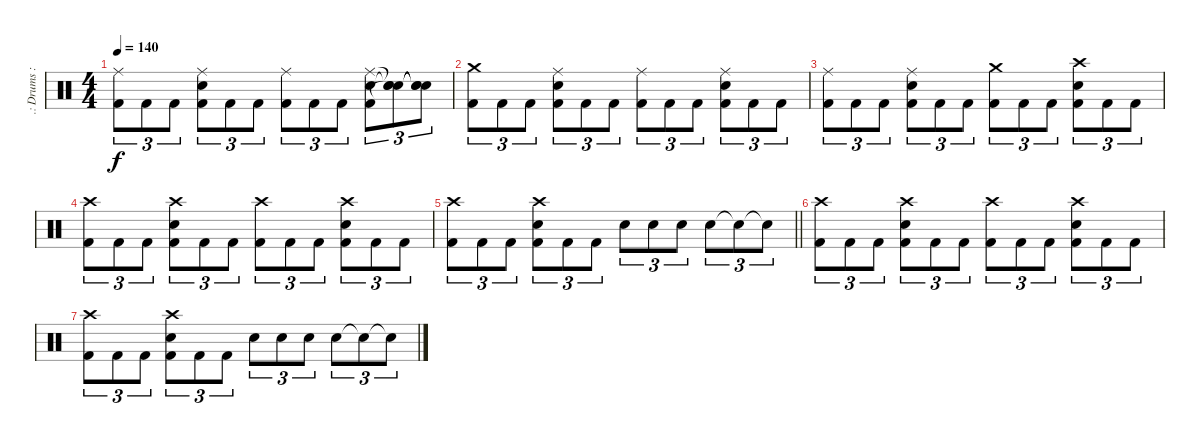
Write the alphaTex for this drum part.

\track (".: Drums :." ".: Drums :") {instrument percussion}
\staff {score}
\articulation defaults
\ts (4 4)
\tempo 140
\clef neutral
\ks c
("Ride (middle)" "Kick (hit) 2").8{tu (3 2) dy f} "Kick (hit) 2".8{tu (3 2)} "Kick (hit) 2".8{tu (3 2)} ("Ride (middle)" "Snare (hit) 2" "Kick (hit) 2").8{tu (3 2)} "Kick (hit) 2".8{tu (3 2)} "Kick (hit) 2".8{tu (3 2)} ("Ride (middle)" "Kick (hit) 2").8{tu (3 2)} "Kick (hit) 2".8{tu (3 2)} "Kick (hit) 2".8{tu (3 2)} ("Ride (middle)" "Snare (hit) 2" "Kick (hit) 2").8{tu (3 2)} ("Snare (hit)"{t} "Snare (hit)"{t} "Snare (hit)"{t}).8{tu (3 2)} ("Snare (hit)"{t} "Snare (hit)"{t} "Snare (hit)"{t}).8{tu (3 2)} |
("Crash medium (hit)" "Kick (hit) 2").8{tu (3 2)} "Kick (hit) 2".8{tu (3 2)} "Kick (hit) 2".8{tu (3 2)} ("Ride (middle)" "Snare (hit) 2" "Kick (hit) 2").8{tu (3 2)} "Kick (hit) 2".8{tu (3 2)} "Kick (hit) 2".8{tu (3 2)} ("Ride (middle)" "Kick (hit) 2").8{tu (3 2)} "Kick (hit) 2".8{tu (3 2)} "Kick (hit) 2".8{tu (3 2)} ("Ride (middle)" "Snare (hit) 2" "Kick (hit) 2").8{tu (3 2)} "Kick (hit) 2".8{tu (3 2)} "Kick (hit) 2".8{tu (3 2)} |
("Ride (middle)" "Kick (hit) 2").8{tu (3 2)} "Kick (hit) 2".8{tu (3 2)} "Kick (hit) 2".8{tu (3 2)} ("Ride (middle)" "Snare (hit) 2" "Kick (hit) 2").8{tu (3 2)} "Kick (hit) 2".8{tu (3 2)} "Kick (hit) 2".8{tu (3 2)} ("Crash medium (hit)" "Kick (hit) 2").8{tu (3 2)} "Kick (hit) 2".8{tu (3 2)} "Kick (hit) 2".8{tu (3 2)} ("Crash high (hit)" "Snare (hit) 2" "Kick (hit) 2").8{tu (3 2)} "Kick (hit) 2".8{tu (3 2)} "Kick (hit) 2".8{tu (3 2)} |
("Crash high (hit)" "Kick (hit) 2").8{tu (3 2)} "Kick (hit) 2".8{tu (3 2)} "Kick (hit) 2".8{tu (3 2)} ("Crash high (hit)" "Snare (hit) 2" "Kick (hit) 2").8{tu (3 2)} "Kick (hit) 2".8{tu (3 2)} "Kick (hit) 2".8{tu (3 2)} ("Crash high (hit)" "Kick (hit) 2").8{tu (3 2)} "Kick (hit) 2".8{tu (3 2)} "Kick (hit) 2".8{tu (3 2)} ("Crash high (hit)" "Snare (hit) 2" "Kick (hit) 2").8{tu (3 2)} "Kick (hit) 2".8{tu (3 2)} "Kick (hit) 2".8{tu (3 2)} |
\barLineRight lightlight
("Crash high (hit)" "Kick (hit) 2").8{tu (3 2)} "Kick (hit) 2".8{tu (3 2)} "Kick (hit) 2".8{tu (3 2)} ("Crash high (hit)" "Snare (hit) 2" "Kick (hit) 2").8{tu (3 2)} "Kick (hit) 2".8{tu (3 2)} "Kick (hit) 2".8{tu (3 2)} "Snare (hit) 2".8{tu (3 2)} "Snare (hit) 2".8{tu (3 2)} "Snare (hit) 2".8{tu (3 2)} "Snare (hit) 2".8{tu (3 2)} "Snare (hit)"{t}.8{tu (3 2)} "Snare (hit)"{t}.8{tu (3 2)} |
\section ("" "")
("Crash high (hit)" "Kick (hit) 2").8{tu (3 2)} "Kick (hit) 2".8{tu (3 2)} "Kick (hit) 2".8{tu (3 2)} ("Crash high (hit)" "Snare (hit) 2" "Kick (hit) 2").8{tu (3 2)} "Kick (hit) 2".8{tu (3 2)} "Kick (hit) 2".8{tu (3 2)} ("Crash high (hit)" "Kick (hit) 2").8{tu (3 2)} "Kick (hit) 2".8{tu (3 2)} "Kick (hit) 2".8{tu (3 2)} ("Crash high (hit)" "Snare (hit) 2" "Kick (hit) 2").8{tu (3 2)} "Kick (hit) 2".8{tu (3 2)} "Kick (hit) 2".8{tu (3 2)} |
("Crash high (hit)" "Kick (hit) 2").8{tu (3 2)} "Kick (hit) 2".8{tu (3 2)} "Kick (hit) 2".8{tu (3 2)} ("Crash high (hit)" "Snare (hit) 2" "Kick (hit) 2").8{tu (3 2)} "Kick (hit) 2".8{tu (3 2)} "Kick (hit) 2".8{tu (3 2)} "Snare (hit) 2".8{tu (3 2)} "Snare (hit) 2".8{tu (3 2)} "Snare (hit) 2".8{tu (3 2)} "Snare (hit) 2".8{tu (3 2)} "Snare (hit)"{t}.8{tu (3 2)} "Snare (hit)"{t}.8{tu (3 2)}
